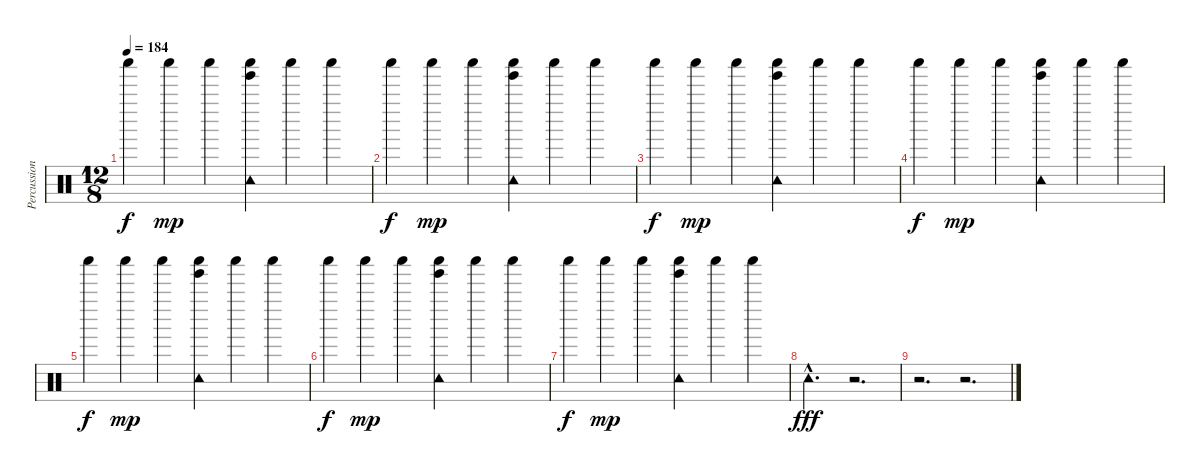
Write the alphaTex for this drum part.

\track ("Percussion" "Percussion") {instrument percussion}
\staff {score}
\articulation defaults
\ts (12 8)
\tempo 184
\clef neutral
\ks c "Shaker (hit)".4{dy f} "Shaker (hit)".4{dy mp} "Shaker (hit)".4
("Tambourine (hit)" "Shaker (hit)" "Tinkle Bell (hit)").4 "Shaker (hit)".4 "Shaker (hit)".4 |
"Shaker (hit)".4{dy f} "Shaker (hit)".4{dy mp} "Shaker (hit)".4 ("Tambourine (hit)" "Shaker (hit)" "Tinkle Bell (hit)").4 "Shaker (hit)".4 "Shaker (hit)".4 |
"Shaker (hit)".4{dy f} "Shaker (hit)".4{dy mp} "Shaker (hit)".4 ("Tambourine (hit)" "Shaker (hit)" "Tinkle Bell (hit)").4 "Shaker (hit)".4 "Shaker (hit)".4 |
"Shaker (hit)".4{dy f} "Shaker (hit)".4{dy mp} "Shaker (hit)".4 ("Tambourine (hit)" "Shaker (hit)" "Tinkle Bell (hit)").4 "Shaker (hit)".4 "Shaker (hit)".4 |
"Shaker (hit)".4{dy f} "Shaker (hit)".4{dy mp} "Shaker (hit)".4 ("Tambourine (hit)" "Shaker (hit)" "Tinkle Bell (hit)").4 "Shaker (hit)".4 "Shaker (hit)".4 |
"Shaker (hit)".4{dy f} "Shaker (hit)".4{dy mp} "Shaker (hit)".4 ("Tambourine (hit)" "Shaker (hit)" "Tinkle Bell (hit)").4 "Shaker (hit)".4 "Shaker (hit)".4 |
"Shaker (hit)".4{dy f} "Shaker (hit)".4{dy mp} "Shaker (hit)".4 ("Tambourine (hit)" "Shaker (hit)" "Tinkle Bell (hit)").4 "Shaker (hit)".4 "Shaker (hit)".4 |
"Tambourine (hit)"{hac}.2{d dy fff} r.2{d} |
r.2{d} r.2{d}
